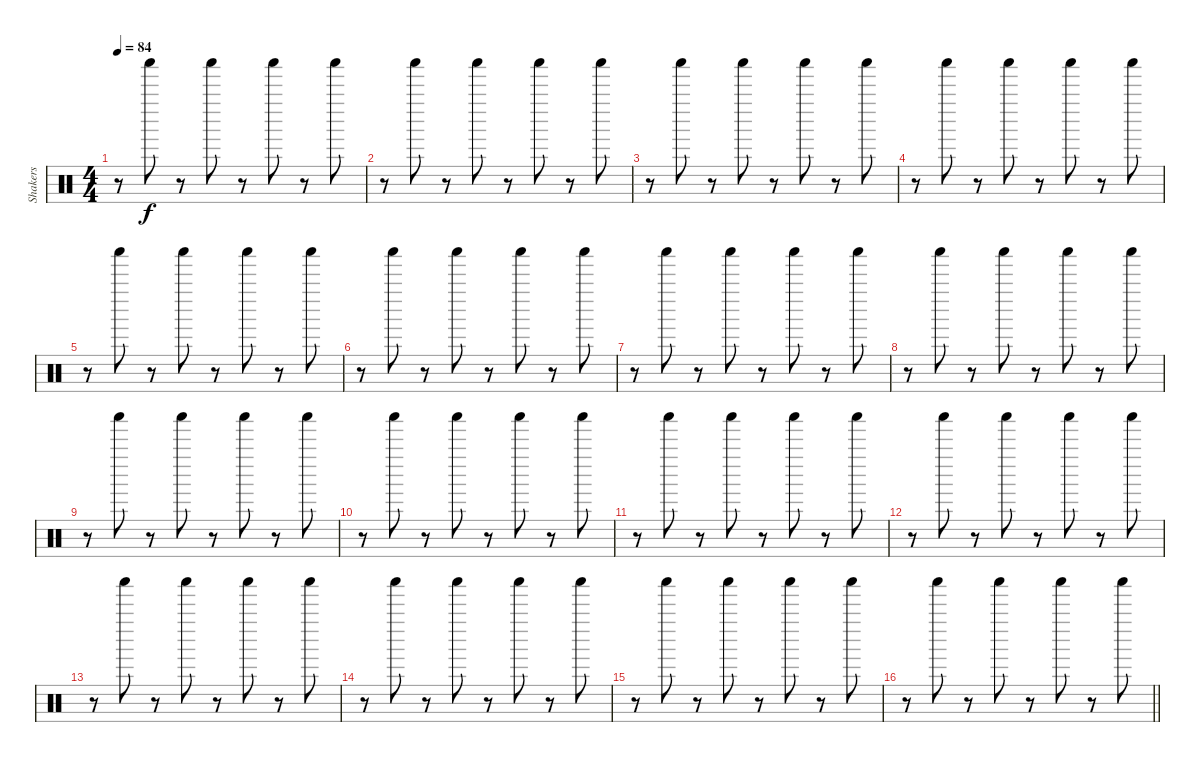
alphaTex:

\track ("Shakers" "Shakers") {instrument percussion}
\staff {score}
\articulation defaults
\ts (4 4)
\tempo 84
\clef neutral
\ks c
r.8{dy f} "Shaker (hit)".8 r.8 "Shaker (hit)".8 r.8 "Shaker (hit)".8 r.8 "Shaker (hit)".8 |
r.8 "Shaker (hit)".8 r.8 "Shaker (hit)".8 r.8 "Shaker (hit)".8 r.8 "Shaker (hit)".8 |
r.8 "Shaker (hit)".8 r.8 "Shaker (hit)".8 r.8 "Shaker (hit)".8 r.8 "Shaker (hit)".8 |
r.8 "Shaker (hit)".8 r.8 "Shaker (hit)".8 r.8 "Shaker (hit)".8 r.8 "Shaker (hit)".8 |
r.8 "Shaker (hit)".8 r.8 "Shaker (hit)".8 r.8 "Shaker (hit)".8 r.8 "Shaker (hit)".8 |
r.8 "Shaker (hit)".8 r.8 "Shaker (hit)".8 r.8 "Shaker (hit)".8 r.8 "Shaker (hit)".8 |
r.8 "Shaker (hit)".8 r.8 "Shaker (hit)".8 r.8 "Shaker (hit)".8 r.8 "Shaker (hit)".8 |
r.8 "Shaker (hit)".8 r.8 "Shaker (hit)".8 r.8 "Shaker (hit)".8 r.8 "Shaker (hit)".8 |
r.8 "Shaker (hit)".8 r.8 "Shaker (hit)".8 r.8 "Shaker (hit)".8 r.8 "Shaker (hit)".8 |
r.8 "Shaker (hit)".8 r.8 "Shaker (hit)".8 r.8 "Shaker (hit)".8 r.8 "Shaker (hit)".8 |
r.8 "Shaker (hit)".8 r.8 "Shaker (hit)".8 r.8 "Shaker (hit)".8 r.8 "Shaker (hit)".8 |
r.8 "Shaker (hit)".8 r.8 "Shaker (hit)".8 r.8 "Shaker (hit)".8 r.8 "Shaker (hit)".8 |
r.8 "Shaker (hit)".8 r.8 "Shaker (hit)".8 r.8 "Shaker (hit)".8 r.8 "Shaker (hit)".8 |
r.8 "Shaker (hit)".8 r.8 "Shaker (hit)".8 r.8 "Shaker (hit)".8 r.8 "Shaker (hit)".8 |
r.8 "Shaker (hit)".8 r.8 "Shaker (hit)".8 r.8 "Shaker (hit)".8 r.8 "Shaker (hit)".8 |
\barLineRight lightlight
r.8 "Shaker (hit)".8 r.8 "Shaker (hit)".8 r.8 "Shaker (hit)".8 r.8 "Shaker (hit)".8
